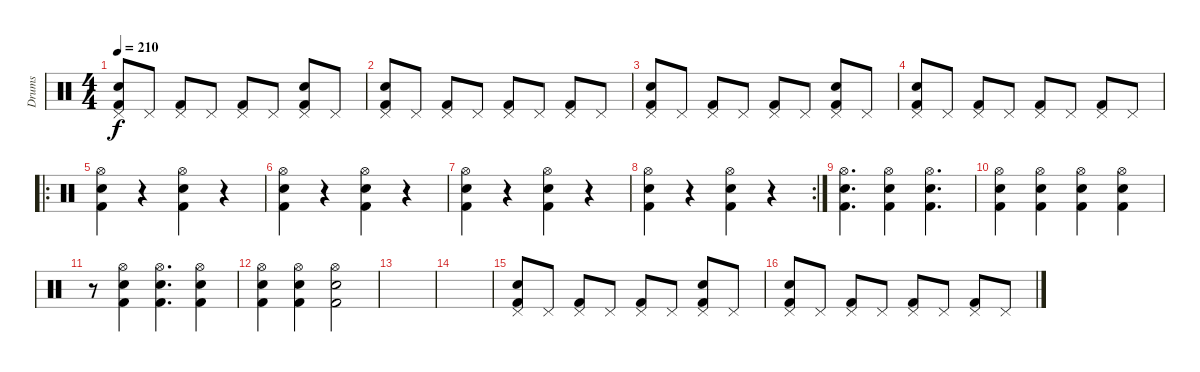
\track ("Drums" "Drums") {instrument percussion}
\staff {score}
\articulation defaults
\ts (4 4)
\tempo 210
\clef neutral
\ks c
("Kick (hit) 2" "Pedal Hi-Hat (hit)" "Snare (hit) 2").8{dy f} "Pedal Hi-Hat (hit)".8 ("Kick (hit) 2" "Pedal Hi-Hat (hit)").8 "Pedal Hi-Hat (hit)".8 ("Kick (hit) 2" "Pedal Hi-Hat (hit)").8 "Pedal Hi-Hat (hit)".8 ("Kick (hit) 2" "Pedal Hi-Hat (hit)" "Snare (hit) 2").8 "Pedal Hi-Hat (hit)".8 |
("Kick (hit) 2" "Pedal Hi-Hat (hit)" "Snare (hit) 2").8 "Pedal Hi-Hat (hit)".8 ("Kick (hit) 2" "Pedal Hi-Hat (hit)").8 "Pedal Hi-Hat (hit)".8 ("Kick (hit) 2" "Pedal Hi-Hat (hit)").8 "Pedal Hi-Hat (hit)".8 ("Kick (hit) 2" "Pedal Hi-Hat (hit)").8 "Pedal Hi-Hat (hit)".8 |
("Kick (hit) 2" "Pedal Hi-Hat (hit)" "Snare (hit) 2").8 "Pedal Hi-Hat (hit)".8 ("Kick (hit) 2" "Pedal Hi-Hat (hit)").8 "Pedal Hi-Hat (hit)".8 ("Kick (hit) 2" "Pedal Hi-Hat (hit)").8 "Pedal Hi-Hat (hit)".8 ("Kick (hit) 2" "Pedal Hi-Hat (hit)" "Snare (hit) 2").8 "Pedal Hi-Hat (hit)".8 |
("Kick (hit) 2" "Pedal Hi-Hat (hit)" "Snare (hit) 2").8 "Pedal Hi-Hat (hit)".8 ("Kick (hit) 2" "Pedal Hi-Hat (hit)").8 "Pedal Hi-Hat (hit)".8 ("Kick (hit) 2" "Pedal Hi-Hat (hit)").8 "Pedal Hi-Hat (hit)".8 ("Kick (hit) 2" "Pedal Hi-Hat (hit)").8 "Pedal Hi-Hat (hit)".8 |
\ro
("Kick (hit) 2" "Snare (hit) 2" "Hi-Hat (open)").4 r.4 ("Kick (hit) 2" "Snare (hit) 2" "Hi-Hat (open)").4 r.4 |
("Kick (hit) 2" "Snare (hit) 2" "Hi-Hat (open)").4 r.4 ("Kick (hit) 2" "Snare (hit) 2" "Hi-Hat (open)").4 r.4 |
("Kick (hit) 2" "Snare (hit) 2" "Hi-Hat (open)").4 r.4 ("Kick (hit) 2" "Snare (hit) 2" "Hi-Hat (open)").4 r.4 |
\rc 2
("Kick (hit) 2" "Snare (hit) 2" "Hi-Hat (open)").4 r.4 ("Kick (hit) 2" "Snare (hit) 2" "Hi-Hat (open)").4 r.4 |
("Kick (hit) 2" "Snare (hit) 2" "Hi-Hat (open)").4{d} ("Kick (hit) 2" "Snare (hit) 2" "Hi-Hat (open)").4 ("Kick (hit) 2" "Snare (hit) 2" "Hi-Hat (open)").4{d} |
("Kick (hit) 2" "Snare (hit) 2" "Hi-Hat (open)").4 ("Kick (hit) 2" "Snare (hit) 2" "Hi-Hat (open)").4 ("Kick (hit) 2" "Snare (hit) 2" "Hi-Hat (open)").4 ("Kick (hit) 2" "Snare (hit) 2" "Hi-Hat (open)").4 |
r.8 ("Kick (hit) 2" "Snare (hit) 2" "Hi-Hat (open)").4 ("Kick (hit) 2" "Snare (hit) 2" "Hi-Hat (open)").4{d} ("Kick (hit) 2" "Snare (hit) 2" "Hi-Hat (open)").4 |
("Kick (hit) 2" "Snare (hit) 2" "Hi-Hat (open)").4 ("Kick (hit) 2" "Snare (hit) 2" "Hi-Hat (open)").4 ("Kick (hit) 2" "Snare (hit) 2" "Hi-Hat (open)").2 |
|
|
("Kick (hit) 2" "Pedal Hi-Hat (hit)" "Snare (hit) 2").8 "Pedal Hi-Hat (hit)".8 ("Kick (hit) 2" "Pedal Hi-Hat (hit)").8 "Pedal Hi-Hat (hit)".8 ("Kick (hit) 2" "Pedal Hi-Hat (hit)").8 "Pedal Hi-Hat (hit)".8 ("Kick (hit) 2" "Pedal Hi-Hat (hit)" "Snare (hit) 2").8 "Pedal Hi-Hat (hit)".8 |
("Kick (hit) 2" "Pedal Hi-Hat (hit)" "Snare (hit) 2").8 "Pedal Hi-Hat (hit)".8 ("Kick (hit) 2" "Pedal Hi-Hat (hit)").8 "Pedal Hi-Hat (hit)".8 ("Kick (hit) 2" "Pedal Hi-Hat (hit)").8 "Pedal Hi-Hat (hit)".8 ("Kick (hit) 2" "Pedal Hi-Hat (hit)").8 "Pedal Hi-Hat (hit)".8
